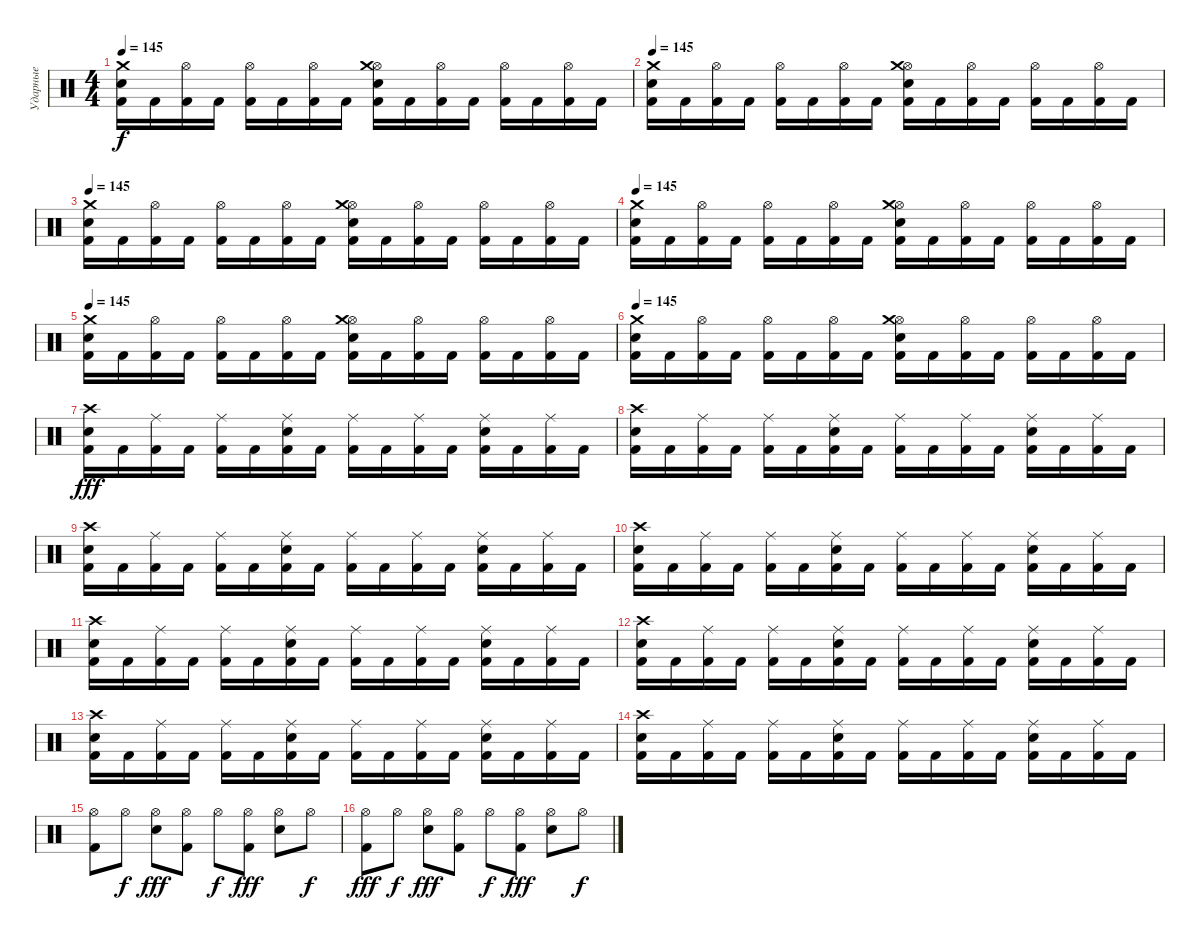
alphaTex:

\track ("Ударные" "Ударные") {instrument percussion}
\staff {score}
\articulation defaults
\ts (4 4)
\tempo 145
\clef neutral
\ks c
("Kick (hit) 2" "Electric Snare (hit)" "Crash medium (hit)").16{dy f} "Kick (hit) 2".16 ("Kick (hit) 2" "Hi-Hat (open)").16 "Kick (hit) 2".16 ("Kick (hit) 2" "Hi-Hat (open)").16 "Kick (hit) 2".16 ("Kick (hit) 2" "Hi-Hat (open)").16 "Kick (hit) 2".16 ("Kick (hit) 2" "Electric Snare (hit)" "Hi-Hat (open)" "Crash medium (hit)").16 "Kick (hit) 2".16 ("Kick (hit) 2" "Hi-Hat (open)").16 "Kick (hit) 2".16 ("Kick (hit) 2" "Hi-Hat (open)").16 "Kick (hit) 2".16 ("Kick (hit) 2" "Hi-Hat (open)").16 "Kick (hit) 2".16 |
\tempo 145
("Kick (hit) 2" "Electric Snare (hit)" "Crash medium (hit)").16 "Kick (hit) 2".16 ("Kick (hit) 2" "Hi-Hat (open)").16 "Kick (hit) 2".16 ("Kick (hit) 2" "Hi-Hat (open)").16 "Kick (hit) 2".16 ("Kick (hit) 2" "Hi-Hat (open)").16 "Kick (hit) 2".16 ("Kick (hit) 2" "Electric Snare (hit)" "Hi-Hat (open)" "Crash medium (hit)").16 "Kick (hit) 2".16 ("Kick (hit) 2" "Hi-Hat (open)").16 "Kick (hit) 2".16 ("Kick (hit) 2" "Hi-Hat (open)").16 "Kick (hit) 2".16 ("Kick (hit) 2" "Hi-Hat (open)").16 "Kick (hit) 2".16 |
\tempo 145
("Kick (hit) 2" "Electric Snare (hit)" "Crash medium (hit)").16 "Kick (hit) 2".16 ("Kick (hit) 2" "Hi-Hat (open)").16 "Kick (hit) 2".16 ("Kick (hit) 2" "Hi-Hat (open)").16 "Kick (hit) 2".16 ("Kick (hit) 2" "Hi-Hat (open)").16 "Kick (hit) 2".16 ("Kick (hit) 2" "Electric Snare (hit)" "Hi-Hat (open)" "Crash medium (hit)").16 "Kick (hit) 2".16 ("Kick (hit) 2" "Hi-Hat (open)").16 "Kick (hit) 2".16 ("Kick (hit) 2" "Hi-Hat (open)").16 "Kick (hit) 2".16 ("Kick (hit) 2" "Hi-Hat (open)").16 "Kick (hit) 2".16 |
\tempo 145
("Kick (hit) 2" "Electric Snare (hit)" "Crash medium (hit)").16 "Kick (hit) 2".16 ("Kick (hit) 2" "Hi-Hat (open)").16 "Kick (hit) 2".16 ("Kick (hit) 2" "Hi-Hat (open)").16 "Kick (hit) 2".16 ("Kick (hit) 2" "Hi-Hat (open)").16 "Kick (hit) 2".16 ("Kick (hit) 2" "Electric Snare (hit)" "Hi-Hat (open)" "Crash medium (hit)").16 "Kick (hit) 2".16 ("Kick (hit) 2" "Hi-Hat (open)").16 "Kick (hit) 2".16 ("Kick (hit) 2" "Hi-Hat (open)").16 "Kick (hit) 2".16 ("Kick (hit) 2" "Hi-Hat (open)").16 "Kick (hit) 2".16 |
\tempo 145
("Kick (hit) 2" "Electric Snare (hit)" "Crash medium (hit)").16 "Kick (hit) 2".16 ("Kick (hit) 2" "Hi-Hat (open)").16 "Kick (hit) 2".16 ("Kick (hit) 2" "Hi-Hat (open)").16 "Kick (hit) 2".16 ("Kick (hit) 2" "Hi-Hat (open)").16 "Kick (hit) 2".16 ("Kick (hit) 2" "Electric Snare (hit)" "Hi-Hat (open)" "Crash medium (hit)").16 "Kick (hit) 2".16 ("Kick (hit) 2" "Hi-Hat (open)").16 "Kick (hit) 2".16 ("Kick (hit) 2" "Hi-Hat (open)").16 "Kick (hit) 2".16 ("Kick (hit) 2" "Hi-Hat (open)").16 "Kick (hit) 2".16 |
\tempo 145
("Kick (hit) 2" "Electric Snare (hit)" "Crash medium (hit)").16 "Kick (hit) 2".16 ("Kick (hit) 2" "Hi-Hat (open)").16 "Kick (hit) 2".16 ("Kick (hit) 2" "Hi-Hat (open)").16 "Kick (hit) 2".16 ("Kick (hit) 2" "Hi-Hat (open)").16 "Kick (hit) 2".16 ("Kick (hit) 2" "Electric Snare (hit)" "Hi-Hat (open)" "Crash medium (hit)").16 "Kick (hit) 2".16 ("Kick (hit) 2" "Hi-Hat (open)").16 "Kick (hit) 2".16 ("Kick (hit) 2" "Hi-Hat (open)").16 "Kick (hit) 2".16 ("Kick (hit) 2" "Hi-Hat (open)").16 "Kick (hit) 2".16 |
("Kick (hit) 2" "Electric Snare (hit)" "Crash high (hit)").16{dy fff} "Kick (hit) 2".16 ("Kick (hit) 2" "Ride (middle)").16 "Kick (hit) 2".16 ("Kick (hit) 2" "Ride (middle)").16 "Kick (hit) 2".16 ("Kick (hit) 2" "Electric Snare (hit)" "Ride (middle)").16 "Kick (hit) 2".16 ("Kick (hit) 2" "Ride (middle)").16 "Kick (hit) 2".16 ("Kick (hit) 2" "Ride (middle)").16 "Kick (hit) 2".16 ("Kick (hit) 2" "Electric Snare (hit)" "Ride (middle)").16 "Kick (hit) 2".16 ("Kick (hit) 2" "Ride (middle)").16 "Kick (hit) 2".16 |
("Kick (hit) 2" "Electric Snare (hit)" "Crash high (hit)").16 "Kick (hit) 2".16 ("Kick (hit) 2" "Ride (middle)").16 "Kick (hit) 2".16 ("Kick (hit) 2" "Ride (middle)").16 "Kick (hit) 2".16 ("Kick (hit) 2" "Electric Snare (hit)" "Ride (middle)").16 "Kick (hit) 2".16 ("Kick (hit) 2" "Ride (middle)").16 "Kick (hit) 2".16 ("Kick (hit) 2" "Ride (middle)").16 "Kick (hit) 2".16 ("Kick (hit) 2" "Electric Snare (hit)" "Ride (middle)").16 "Kick (hit) 2".16 ("Kick (hit) 2" "Ride (middle)").16 "Kick (hit) 2".16 |
("Kick (hit) 2" "Electric Snare (hit)" "Crash high (hit)").16 "Kick (hit) 2".16 ("Kick (hit) 2" "Ride (middle)").16 "Kick (hit) 2".16 ("Kick (hit) 2" "Ride (middle)").16 "Kick (hit) 2".16 ("Kick (hit) 2" "Electric Snare (hit)" "Ride (middle)").16 "Kick (hit) 2".16 ("Kick (hit) 2" "Ride (middle)").16 "Kick (hit) 2".16 ("Kick (hit) 2" "Ride (middle)").16 "Kick (hit) 2".16 ("Kick (hit) 2" "Electric Snare (hit)" "Ride (middle)").16 "Kick (hit) 2".16 ("Kick (hit) 2" "Ride (middle)").16 "Kick (hit) 2".16 |
("Kick (hit) 2" "Electric Snare (hit)" "Crash high (hit)").16 "Kick (hit) 2".16 ("Kick (hit) 2" "Ride (middle)").16 "Kick (hit) 2".16 ("Kick (hit) 2" "Ride (middle)").16 "Kick (hit) 2".16 ("Kick (hit) 2" "Electric Snare (hit)" "Ride (middle)").16 "Kick (hit) 2".16 ("Kick (hit) 2" "Ride (middle)").16 "Kick (hit) 2".16 ("Kick (hit) 2" "Ride (middle)").16 "Kick (hit) 2".16 ("Kick (hit) 2" "Electric Snare (hit)" "Ride (middle)").16 "Kick (hit) 2".16 ("Kick (hit) 2" "Ride (middle)").16 "Kick (hit) 2".16 |
("Kick (hit) 2" "Electric Snare (hit)" "Crash high (hit)").16 "Kick (hit) 2".16 ("Kick (hit) 2" "Ride (middle)").16 "Kick (hit) 2".16 ("Kick (hit) 2" "Ride (middle)").16 "Kick (hit) 2".16 ("Kick (hit) 2" "Electric Snare (hit)" "Ride (middle)").16 "Kick (hit) 2".16 ("Kick (hit) 2" "Ride (middle)").16 "Kick (hit) 2".16 ("Kick (hit) 2" "Ride (middle)").16 "Kick (hit) 2".16 ("Kick (hit) 2" "Electric Snare (hit)" "Ride (middle)").16 "Kick (hit) 2".16 ("Kick (hit) 2" "Ride (middle)").16 "Kick (hit) 2".16 |
("Kick (hit) 2" "Electric Snare (hit)" "Crash high (hit)").16 "Kick (hit) 2".16 ("Kick (hit) 2" "Ride (middle)").16 "Kick (hit) 2".16 ("Kick (hit) 2" "Ride (middle)").16 "Kick (hit) 2".16 ("Kick (hit) 2" "Electric Snare (hit)" "Ride (middle)").16 "Kick (hit) 2".16 ("Kick (hit) 2" "Ride (middle)").16 "Kick (hit) 2".16 ("Kick (hit) 2" "Ride (middle)").16 "Kick (hit) 2".16 ("Kick (hit) 2" "Electric Snare (hit)" "Ride (middle)").16 "Kick (hit) 2".16 ("Kick (hit) 2" "Ride (middle)").16 "Kick (hit) 2".16 |
("Kick (hit) 2" "Electric Snare (hit)" "Crash high (hit)").16 "Kick (hit) 2".16 ("Kick (hit) 2" "Ride (middle)").16 "Kick (hit) 2".16 ("Kick (hit) 2" "Ride (middle)").16 "Kick (hit) 2".16 ("Kick (hit) 2" "Electric Snare (hit)" "Ride (middle)").16 "Kick (hit) 2".16 ("Kick (hit) 2" "Ride (middle)").16 "Kick (hit) 2".16 ("Kick (hit) 2" "Ride (middle)").16 "Kick (hit) 2".16 ("Kick (hit) 2" "Electric Snare (hit)" "Ride (middle)").16 "Kick (hit) 2".16 ("Kick (hit) 2" "Ride (middle)").16 "Kick (hit) 2".16 |
("Kick (hit) 2" "Electric Snare (hit)" "Crash high (hit)").16 "Kick (hit) 2".16 ("Kick (hit) 2" "Ride (middle)").16 "Kick (hit) 2".16 ("Kick (hit) 2" "Ride (middle)").16 "Kick (hit) 2".16 ("Kick (hit) 2" "Electric Snare (hit)" "Ride (middle)").16 "Kick (hit) 2".16 ("Kick (hit) 2" "Ride (middle)").16 "Kick (hit) 2".16 ("Kick (hit) 2" "Ride (middle)").16 "Kick (hit) 2".16 ("Kick (hit) 2" "Electric Snare (hit)" "Ride (middle)").16 "Kick (hit) 2".16 ("Kick (hit) 2" "Ride (middle)").16 "Kick (hit) 2".16 |
("Kick (hit) 2" "Hi-Hat (open)").8 "Hi-Hat (open)".8{dy f} ("Electric Snare (hit)" "Hi-Hat (open)").8{dy fff} ("Kick (hit) 2" "Hi-Hat (open)").8 "Hi-Hat (open)".8{dy f} ("Kick (hit) 2" "Hi-Hat (open)").8{dy fff} ("Electric Snare (hit)" "Hi-Hat (open)").8 "Hi-Hat (open)".8{dy f} |
("Kick (hit) 2" "Hi-Hat (open)").8{dy fff} "Hi-Hat (open)".8{dy f} ("Electric Snare (hit)" "Hi-Hat (open)").8{dy fff} ("Kick (hit) 2" "Hi-Hat (open)").8 "Hi-Hat (open)".8{dy f} ("Kick (hit) 2" "Hi-Hat (open)").8{dy fff} ("Electric Snare (hit)" "Hi-Hat (open)").8 "Hi-Hat (open)".8{dy f}
